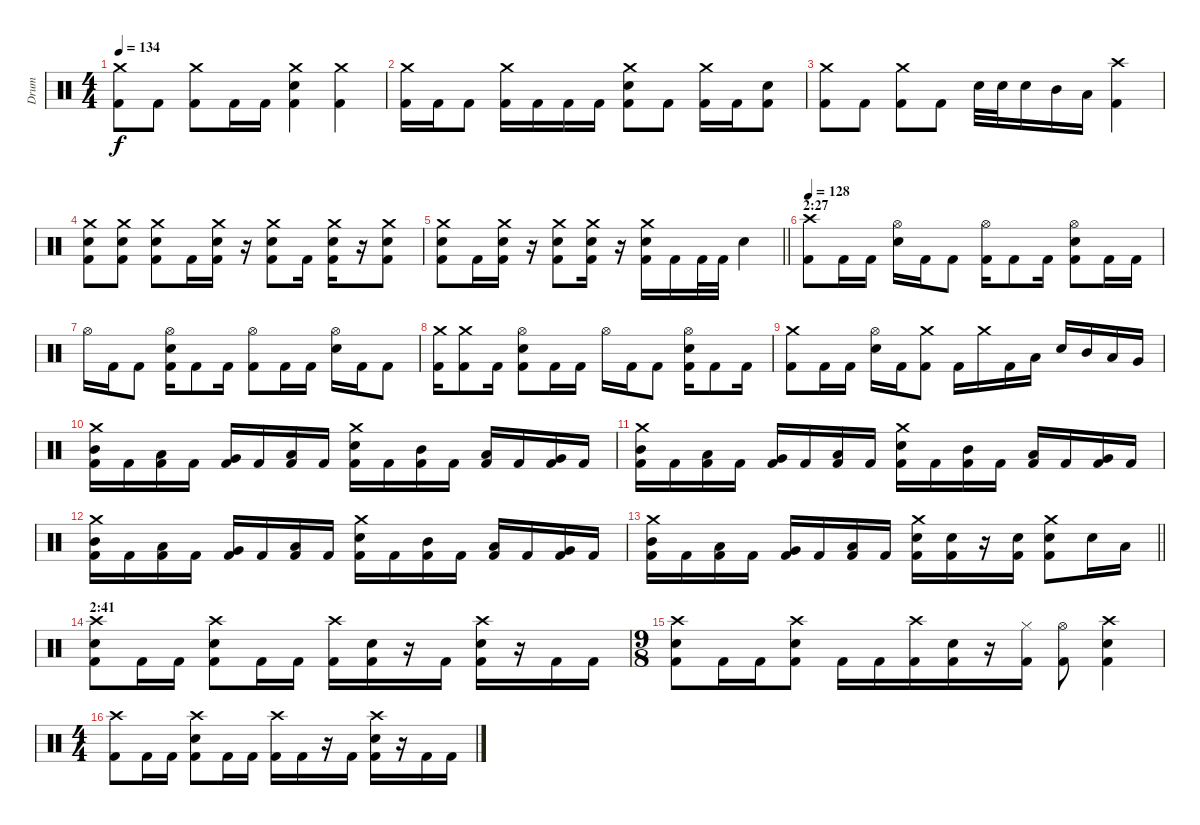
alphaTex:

\track ("Drum" "Drum") {instrument percussion}
\staff {score}
\articulation defaults
\ts (4 4)
\tempo 134
\clef neutral
\ks c
("Crash medium (hit)" "Kick (hit) 2").8{dy f} "Kick (hit) 2".8 ("Crash medium (hit)" "Kick (hit) 2").8 "Kick (hit) 2".16 "Kick (hit) 2".16 ("Crash medium (hit)" "Electric Snare (hit)" "Kick (hit) 2").4 ("Crash medium (hit)" "Kick (hit) 2").4 |
("Crash medium (hit)" "Kick (hit) 2").16 "Kick (hit) 2".16 "Kick (hit) 2".8 ("Crash medium (hit)" "Kick (hit) 2").16 "Kick (hit) 2".16 "Kick (hit) 2".16 "Kick (hit) 2".16 ("Crash medium (hit)" "Electric Snare (hit)" "Kick (hit) 2").8 "Kick (hit) 2".8 ("Crash medium (hit)" "Kick (hit) 2").16 "Kick (hit) 2".16 ("Electric Snare (hit)" "Kick (hit) 2").8 |
("Crash medium (hit)" "Kick (hit) 2").8 "Kick (hit) 2".8 ("Crash medium (hit)" "Kick (hit) 2").8 "Kick (hit) 2".8 "Electric Snare (hit)".32 "Electric Snare (hit)".32 "Electric Snare (hit)".16 "Mid Tom (hit)".16 "Low Tom (hit)".16 ("Crash high (hit)" "Kick (hit) 2").4 |
("Crash medium (hit)" "Electric Snare (hit)" "Kick (hit) 2").8 ("Crash medium (hit)" "Electric Snare (hit)" "Kick (hit) 2").8 ("Crash medium (hit)" "Electric Snare (hit)" "Kick (hit) 2").8 "Kick (hit) 2".16 ("Crash medium (hit)" "Electric Snare (hit)" "Kick (hit) 2").16 r.16 ("Crash medium (hit)" "Electric Snare (hit)" "Kick (hit) 2").8 "Kick (hit) 2".16 ("Crash medium (hit)" "Electric Snare (hit)" "Kick (hit) 2").16 r.16 ("Crash medium (hit)" "Electric Snare (hit)" "Kick (hit) 2").8 |
\barLineRight lightlight
("Crash medium (hit)" "Electric Snare (hit)" "Kick (hit) 2").8 "Kick (hit) 2".16 ("Crash medium (hit)" "Electric Snare (hit)" "Kick (hit) 2").16 r.16 ("Crash medium (hit)" "Electric Snare (hit)" "Kick (hit) 2").8 ("Crash medium (hit)" "Electric Snare (hit)" "Kick (hit) 2").16 r.16 ("Crash medium (hit)" "Electric Snare (hit)" "Kick (hit) 2").16 "Kick (hit) 2".16 "Kick (hit) 2".32 "Kick (hit) 2".32 "Electric Snare (hit)".4 |
\section ("" "2:27")
\tempo 128
("Crash high (hit)" "Kick (hit) 2").8 "Kick (hit) 2".16 "Kick (hit) 2".16 ("Hi-Hat (open)" "Electric Snare (hit)").16 "Kick (hit) 2".16 "Kick (hit) 2".8 ("Hi-Hat (open)" "Kick (hit) 2").16 "Kick (hit) 2".8 "Kick (hit) 2".16 ("Hi-Hat (open)" "Electric Snare (hit)" "Kick (hit) 2").8 "Kick (hit) 2".16 "Kick (hit) 2".16 |
"Hi-Hat (open)".16 "Kick (hit) 2".16 "Kick (hit) 2".8 ("Hi-Hat (open)" "Electric Snare (hit)" "Kick (hit) 2").16 "Kick (hit) 2".8 "Kick (hit) 2".16 ("Hi-Hat (open)" "Kick (hit) 2").8 "Kick (hit) 2".16 "Kick (hit) 2".16 ("Hi-Hat (open)" "Electric Snare (hit)").16 "Kick (hit) 2".16 "Kick (hit) 2".8 |
("Crash medium (hit)" "Kick (hit) 2").16 ("Crash medium (hit)" "Kick (hit) 2").8 "Kick (hit) 2".16 ("Hi-Hat (open)" "Electric Snare (hit)" "Kick (hit) 2").8 "Kick (hit) 2".16 "Kick (hit) 2".16 "Hi-Hat (open)".16 "Kick (hit) 2".16 "Kick (hit) 2".8 ("Hi-Hat (open)" "Electric Snare (hit)" "Kick (hit) 2").16 "Kick (hit) 2".8 "Kick (hit) 2".16 |
("Crash medium (hit)" "Kick (hit) 2").8 "Kick (hit) 2".16 "Kick (hit) 2".16 ("Hi-Hat (open)" "Electric Snare (hit)").16 "Kick (hit) 2".16 ("Crash medium (hit)" "Kick (hit) 2").8 "Kick (hit) 2".16 "Crash medium (hit)".16 "Kick (hit) 2".16 "Low Tom (hit)".16 "Electric Snare (hit)".16 "Mid Tom (hit)".16 "Low Tom (hit)".16 "Very Low Tom (hit)".16 |
("Crash medium (hit)" "Mid Tom (hit)" "Kick (hit) 2").16 "Kick (hit) 2".16 ("Low Tom (hit)" "Kick (hit) 2").16 "Kick (hit) 2".16 ("Very Low Tom (hit)" "Kick (hit) 2").16 "Kick (hit) 2".16 ("Low Floor Tom (hit)" "Kick (hit) 2").16 "Kick (hit) 2".16 ("Crash medium (hit)" "Electric Snare (hit)" "Kick (hit) 2").16 "Kick (hit) 2".16 ("Mid Tom (hit)" "Kick (hit) 2").16 "Kick (hit) 2".16 ("Low Tom (hit)" "Kick (hit) 2").16 "Kick (hit) 2".16 ("Very Low Tom (hit)" "Kick (hit) 2").16 "Kick (hit) 2".16 |
("Crash medium (hit)" "Mid Tom (hit)" "Kick (hit) 2").16 "Kick (hit) 2".16 ("Low Tom (hit)" "Kick (hit) 2").16 "Kick (hit) 2".16 ("Very Low Tom (hit)" "Kick (hit) 2").16 "Kick (hit) 2".16 ("Low Floor Tom (hit)" "Kick (hit) 2").16 "Kick (hit) 2".16 ("Crash medium (hit)" "Electric Snare (hit)" "Kick (hit) 2").16 "Kick (hit) 2".16 ("Mid Tom (hit)" "Kick (hit) 2").16 "Kick (hit) 2".16 ("Low Tom (hit)" "Kick (hit) 2").16 "Kick (hit) 2".16 ("Very Low Tom (hit)" "Kick (hit) 2").16 "Kick (hit) 2".16 |
("Crash medium (hit)" "Mid Tom (hit)" "Kick (hit) 2").16 "Kick (hit) 2".16 ("Low Tom (hit)" "Kick (hit) 2").16 "Kick (hit) 2".16 ("Very Low Tom (hit)" "Kick (hit) 2").16 "Kick (hit) 2".16 ("Low Floor Tom (hit)" "Kick (hit) 2").16 "Kick (hit) 2".16 ("Crash medium (hit)" "Electric Snare (hit)" "Kick (hit) 2").16 "Kick (hit) 2".16 ("Mid Tom (hit)" "Kick (hit) 2").16 "Kick (hit) 2".16 ("Low Tom (hit)" "Kick (hit) 2").16 "Kick (hit) 2".16 ("Very Low Tom (hit)" "Kick (hit) 2").16 "Kick (hit) 2".16 |
\barLineRight lightlight
("Crash medium (hit)" "Mid Tom (hit)" "Kick (hit) 2").16 "Kick (hit) 2".16 ("Low Tom (hit)" "Kick (hit) 2").16 "Kick (hit) 2".16 ("Very Low Tom (hit)" "Kick (hit) 2").16 "Kick (hit) 2".16 ("Low Floor Tom (hit)" "Kick (hit) 2").16 "Kick (hit) 2".16 ("Crash medium (hit)" "Electric Snare (hit)" "Kick (hit) 2").16 ("Electric Snare (hit)" "Kick (hit) 2").16 r.16 ("Electric Snare (hit)" "Kick (hit) 2").16 ("Crash medium (hit)" "Electric Snare (hit)" "Kick (hit) 2").8 "Electric Snare (hit)".16 "Low Tom (hit)".16 |
\section ("" "2:41")
("Crash high (hit)" "Electric Snare (hit)" "Kick (hit) 2").8 "Kick (hit) 2".16 "Kick (hit) 2".16 ("Crash high (hit)" "Electric Snare (hit)" "Kick (hit) 2").8 "Kick (hit) 2".16 "Kick (hit) 2".16 ("Crash high (hit)" "Kick (hit) 2").16 ("Electric Snare (hit)" "Kick (hit) 2").16 r.16 "Kick (hit) 2".16 ("Crash high (hit)" "Electric Snare (hit)" "Kick (hit) 2").16 r.16 "Kick (hit) 2".16 "Kick (hit) 2".16 |
\ts (9 8)
("Crash high (hit)" "Electric Snare (hit)" "Kick (hit) 2").8 "Kick (hit) 2".16 "Kick (hit) 2".16 ("Crash high (hit)" "Electric Snare (hit)" "Kick (hit) 2").8 "Kick (hit) 2".16 "Kick (hit) 2".16 ("Crash high (hit)" "Kick (hit) 2").16 ("Electric Snare (hit)" "Kick (hit) 2").16 r.16 ("Hi-Hat (closed)" "Kick (hit) 2").16 ("Hi-Hat (open)" "Kick (hit) 2").8 ("Crash high (hit)" "Electric Snare (hit)" "Kick (hit) 2").4 |
\ts (4 4)
("Crash high (hit)" "Kick (hit) 2").8 "Kick (hit) 2".16 "Kick (hit) 2".16 ("Crash high (hit)" "Electric Snare (hit)" "Kick (hit) 2").8 "Kick (hit) 2".16 "Kick (hit) 2".16 ("Crash high (hit)" "Kick (hit) 2").16 "Kick (hit) 2".16 r.16 "Kick (hit) 2".16 ("Crash high (hit)" "Electric Snare (hit)" "Kick (hit) 2").16 r.16 "Kick (hit) 2".16 "Kick (hit) 2".16
